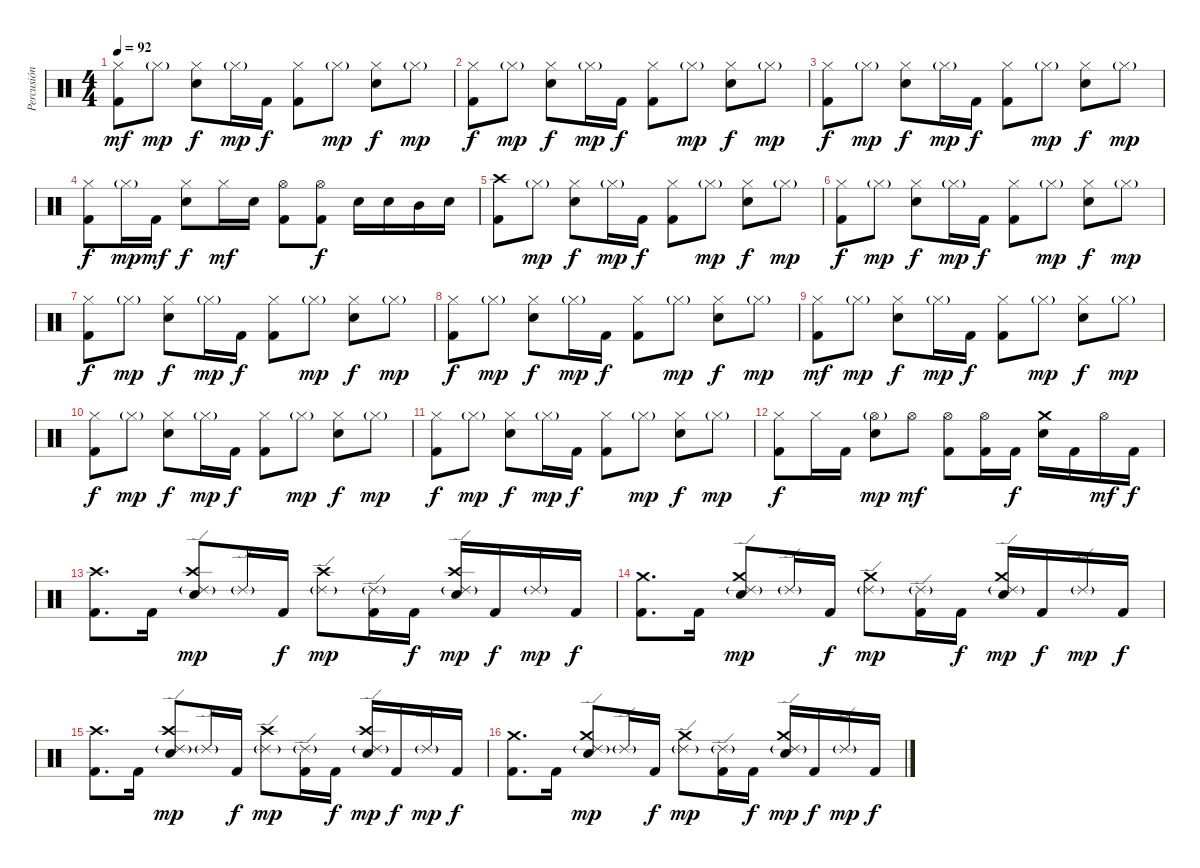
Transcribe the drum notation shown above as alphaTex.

\track ("Percusión" "Percusión") {instrument percussion}
\staff {score}
\articulation defaults
\ts (4 4)
\tempo 92
\clef neutral
\ks c
("Hi-Hat (closed)" "Kick (hit) 2").8{dy mf} "Hi-Hat (closed)"{g}.8{dy mp} ("Hi-Hat (closed)" "Snare (hit) 2").8{dy f} "Hi-Hat (closed)"{g}.16{dy mp} "Kick (hit) 2".16{dy f} ("Hi-Hat (closed)" "Kick (hit) 2").8 "Hi-Hat (closed)"{g}.8{dy mp} ("Hi-Hat (closed)" "Snare (hit) 2").8{dy f} "Hi-Hat (closed)"{g}.8{dy mp} |
("Hi-Hat (closed)" "Kick (hit) 2").8{dy f} "Hi-Hat (closed)"{g}.8{dy mp} ("Hi-Hat (closed)" "Snare (hit) 2").8{dy f} "Hi-Hat (closed)"{g}.16{dy mp} "Kick (hit) 2".16{dy f} ("Hi-Hat (closed)" "Kick (hit) 2").8 "Hi-Hat (closed)"{g}.8{dy mp} ("Hi-Hat (closed)" "Snare (hit) 2").8{dy f} "Hi-Hat (closed)"{g}.8{dy mp} |
("Hi-Hat (closed)" "Kick (hit) 2").8{dy f} "Hi-Hat (closed)"{g}.8{dy mp} ("Hi-Hat (closed)" "Snare (hit) 2").8{dy f} "Hi-Hat (closed)"{g}.16{dy mp} "Kick (hit) 2".16{dy f} ("Hi-Hat (closed)" "Kick (hit) 2").8 "Hi-Hat (closed)"{g}.8{dy mp} ("Hi-Hat (closed)" "Snare (hit) 2").8{dy f} "Hi-Hat (closed)"{g}.8{dy mp} |
("Hi-Hat (closed)" "Kick (hit) 2").8{dy f} "Hi-Hat (closed)"{g}.16{dy mp} "Kick (hit) 2".16{dy mf} ("Hi-Hat (closed)" "Snare (hit) 2").8{dy f} "Hi-Hat (closed)".16{dy mf} "Snare (hit) 2".16 ("Hi-Hat (open)" "Kick (hit) 2").8 ("Hi-Hat (open)" "Kick (hit) 2").8{dy f} "Snare (hit) 2".16 "Snare (hit) 2".16 "Mid Tom (hit)".16 "Snare (hit) 2".16 |
("Crash high (hit)" "Kick (hit) 2").8 "Hi-Hat (closed)"{g}.8{dy mp} ("Hi-Hat (closed)" "Snare (hit) 2").8{dy f} "Hi-Hat (closed)"{g}.16{dy mp} "Kick (hit) 2".16{dy f} ("Hi-Hat (closed)" "Kick (hit) 2").8 "Hi-Hat (closed)"{g}.8{dy mp} ("Hi-Hat (closed)" "Snare (hit) 2").8{dy f} "Hi-Hat (closed)"{g}.8{dy mp} |
("Hi-Hat (closed)" "Kick (hit) 2").8{dy f} "Hi-Hat (closed)"{g}.8{dy mp} ("Hi-Hat (closed)" "Snare (hit) 2").8{dy f} "Hi-Hat (closed)"{g}.16{dy mp} "Kick (hit) 2".16{dy f} ("Hi-Hat (closed)" "Kick (hit) 2").8 "Hi-Hat (closed)"{g}.8{dy mp} ("Hi-Hat (closed)" "Snare (hit) 2").8{dy f} "Hi-Hat (closed)"{g}.8{dy mp} |
("Hi-Hat (closed)" "Kick (hit) 2").8{dy f} "Hi-Hat (closed)"{g}.8{dy mp} ("Hi-Hat (closed)" "Snare (hit) 2").8{dy f} "Hi-Hat (closed)"{g}.16{dy mp} "Kick (hit) 2".16{dy f} ("Hi-Hat (closed)" "Kick (hit) 2").8 "Hi-Hat (closed)"{g}.8{dy mp} ("Hi-Hat (closed)" "Snare (hit) 2").8{dy f} "Hi-Hat (closed)"{g}.8{dy mp} |
("Hi-Hat (closed)" "Kick (hit) 2").8{dy f} "Hi-Hat (closed)"{g}.8{dy mp} ("Hi-Hat (closed)" "Snare (hit) 2").8{dy f} "Hi-Hat (closed)"{g}.16{dy mp} "Kick (hit) 2".16{dy f} ("Hi-Hat (closed)" "Kick (hit) 2").8 "Hi-Hat (closed)"{g}.8{dy mp} ("Hi-Hat (closed)" "Snare (hit) 2").8{dy f} "Hi-Hat (closed)"{g}.8{dy mp} |
("Hi-Hat (closed)" "Kick (hit) 2").8{dy mf} "Hi-Hat (closed)"{g}.8{dy mp} ("Hi-Hat (closed)" "Snare (hit) 2").8{dy f} "Hi-Hat (closed)"{g}.16{dy mp} "Kick (hit) 2".16{dy f} ("Hi-Hat (closed)" "Kick (hit) 2").8 "Hi-Hat (closed)"{g}.8{dy mp} ("Hi-Hat (closed)" "Snare (hit) 2").8{dy f} "Hi-Hat (closed)"{g}.8{dy mp} |
("Hi-Hat (closed)" "Kick (hit) 2").8{dy f} "Hi-Hat (closed)"{g}.8{dy mp} ("Hi-Hat (closed)" "Snare (hit) 2").8{dy f} "Hi-Hat (closed)"{g}.16{dy mp} "Kick (hit) 2".16{dy f} ("Hi-Hat (closed)" "Kick (hit) 2").8 "Hi-Hat (closed)"{g}.8{dy mp} ("Hi-Hat (closed)" "Snare (hit) 2").8{dy f} "Hi-Hat (closed)"{g}.8{dy mp} |
("Hi-Hat (closed)" "Kick (hit) 2").8{dy f} "Hi-Hat (closed)"{g}.8{dy mp} ("Hi-Hat (closed)" "Snare (hit) 2").8{dy f} "Hi-Hat (closed)"{g}.16{dy mp} "Kick (hit) 2".16{dy f} ("Hi-Hat (closed)" "Kick (hit) 2").8 "Hi-Hat (closed)"{g}.8{dy mp} ("Hi-Hat (closed)" "Snare (hit) 2").8{dy f} "Hi-Hat (closed)"{g}.8{dy mp} |
("Hi-Hat (closed)" "Kick (hit) 2").8{dy f} "Hi-Hat (closed)".16 "Kick (hit) 2".16 ("Hi-Hat (open)"{g} "Snare (hit) 2").8{dy mp} "Hi-Hat (open)".8{dy mf} ("Hi-Hat (open)" "Kick (hit) 2").8 ("Hi-Hat (open)" "Kick (hit) 2").16 "Kick (hit) 2".16{dy f} ("Crash medium (hit)" "Snare (hit) 2").16 "Kick (hit) 2".16 "Hi-Hat (open)".16{dy mf} "Kick (hit) 2".16{dy f} |
("Crash high (hit)" "Kick (hit) 2").8{d} "Kick (hit) 2".16 ("Crash high (hit)" "Ride (edge) 2"{g} "Snare (hit) 2").8{dy mp} "Ride (edge) 2"{g}.16 "Kick (hit) 2".16{dy f} ("Crash high (hit)" "Ride (edge) 2"{g}).8{dy mp} ("Ride (edge) 2"{g} "Kick (hit) 2").16 "Kick (hit) 2".16{dy f} ("Crash high (hit)" "Ride (edge) 2"{g} "Snare (hit) 2").16{dy mp} "Kick (hit) 2".16{dy f} "Ride (edge) 2"{g}.16{dy mp} "Kick (hit) 2".16{dy f} |
("Crash medium (hit)" "Kick (hit) 2").8{d} "Kick (hit) 2".16 ("Crash medium (hit)" "Ride (edge) 2"{g} "Snare (hit) 2").8{dy mp} "Ride (edge) 2"{g}.16 "Kick (hit) 2".16{dy f} ("Crash medium (hit)" "Ride (edge) 2"{g}).8{dy mp} ("Ride (edge) 2"{g} "Kick (hit) 2").16 "Kick (hit) 2".16{dy f} ("Crash medium (hit)" "Ride (edge) 2"{g} "Snare (hit) 2").16{dy mp} "Kick (hit) 2".16{dy f} "Ride (edge) 2"{g}.16{dy mp} "Kick (hit) 2".16{dy f} |
("Crash high (hit)" "Kick (hit) 2").8{d} "Kick (hit) 2".16 ("Crash high (hit)" "Ride (edge) 2"{g} "Snare (hit) 2").8{dy mp} "Ride (edge) 2"{g}.16 "Kick (hit) 2".16{dy f} ("Crash high (hit)" "Ride (edge) 2"{g}).8{dy mp} ("Ride (edge) 2"{g} "Kick (hit) 2").16 "Kick (hit) 2".16{dy f} ("Crash high (hit)" "Ride (edge) 2"{g} "Snare (hit) 2").16{dy mp} "Kick (hit) 2".16{dy f} "Ride (edge) 2"{g}.16{dy mp} "Kick (hit) 2".16{dy f} |
("Crash medium (hit)" "Kick (hit) 2").8{d} "Kick (hit) 2".16 ("Crash medium (hit)" "Ride (edge) 2"{g} "Snare (hit) 2").8{dy mp} "Ride (edge) 2"{g}.16 "Kick (hit) 2".16{dy f} ("Crash medium (hit)" "Ride (edge) 2"{g}).8{dy mp} ("Ride (edge) 2"{g} "Kick (hit) 2").16 "Kick (hit) 2".16{dy f} ("Crash medium (hit)" "Ride (edge) 2"{g} "Snare (hit) 2").16{dy mp} "Kick (hit) 2".16{dy f} "Ride (edge) 2"{g}.16{dy mp} "Kick (hit) 2".16{dy f}
